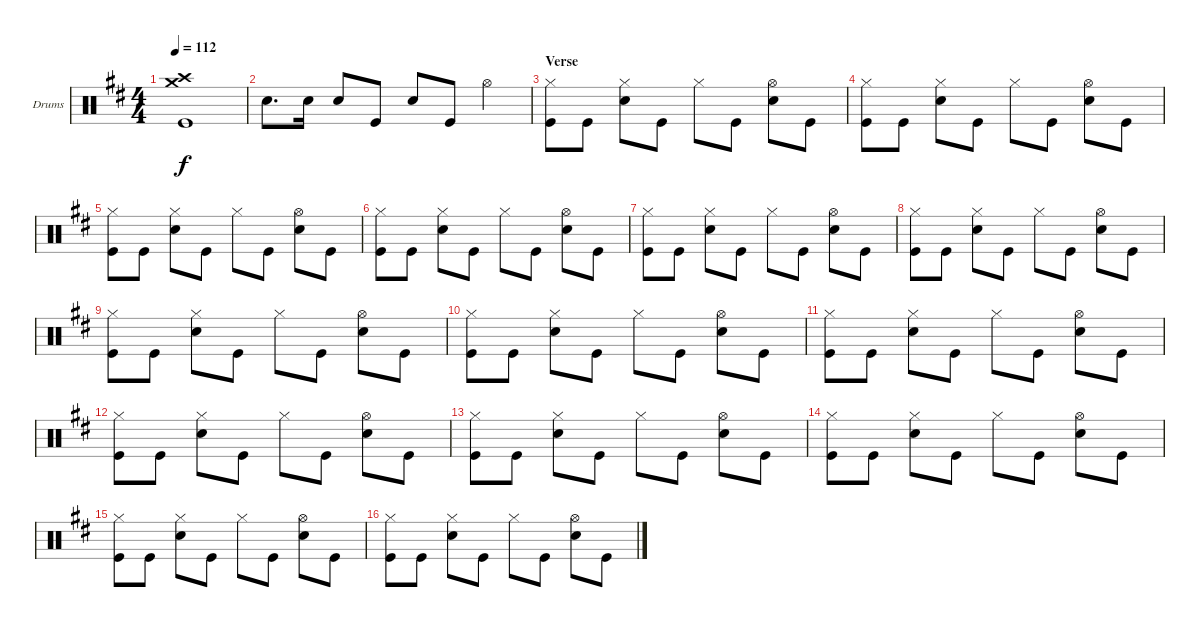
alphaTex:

\defaultSystemsLayout 4
\bracketExtendMode groupsimilarinstruments
\firstSystemTrackNameOrientation horizontal
\otherSystemsTrackNameOrientation horizontal
\track ("Drumkit" "Drums") {instrument percussion}
\staff {score}
\articulation defaults
\ts (4 4)
\tempo 112
\clef neutral
\scale
1.05044
\ks d
("Crash medium (hit)" "Crash high (hit)" "Kick (hit)").1{dy f} |
\scale
0.949559 "Snare (hit) 2".8{d} "Snare (hit) 2".16 "Snare (hit) 2".8 "Kick (hit)".8 "Snare (hit) 2".8 "Kick (hit)".8 "Hi-Hat (open)".4 |
\section ("" "Verse")
\scale
1.05044 ("Hi-Hat (closed)" "Kick (hit)").8 "Kick (hit)".8 ("Hi-Hat (closed)" "Snare (hit) 2").8 "Kick (hit)".8 "Hi-Hat (closed)".8 "Kick (hit)".8 ("Hi-Hat (open)" "Snare (hit) 2").8 "Kick (hit)".8 |
\scale
0.949559 ("Hi-Hat (closed)" "Kick (hit)").8 "Kick (hit)".8 ("Hi-Hat (closed)" "Snare (hit) 2").8 "Kick (hit)".8 "Hi-Hat (closed)".8 "Kick (hit)".8 ("Hi-Hat (open)" "Snare (hit) 2").8 "Kick (hit)".8 |
\scale
1.05044 ("Hi-Hat (closed)" "Kick (hit)").8 "Kick (hit)".8 ("Hi-Hat (closed)" "Snare (hit) 2").8 "Kick (hit)".8 "Hi-Hat (closed)".8 "Kick (hit)".8 ("Hi-Hat (open)" "Snare (hit) 2").8 "Kick (hit)".8 |
\scale
0.949559 ("Hi-Hat (closed)" "Kick (hit)").8 "Kick (hit)".8 ("Hi-Hat (closed)" "Snare (hit) 2").8 "Kick (hit)".8 "Hi-Hat (closed)".8 "Kick (hit)".8 ("Hi-Hat (open)" "Snare (hit) 2").8 "Kick (hit)".8 |
\scale
1.05044 ("Hi-Hat (closed)" "Kick (hit)").8 "Kick (hit)".8 ("Hi-Hat (closed)" "Snare (hit) 2").8 "Kick (hit)".8 "Hi-Hat (closed)".8 "Kick (hit)".8 ("Hi-Hat (open)" "Snare (hit) 2").8 "Kick (hit)".8 |
\scale
0.949559 ("Hi-Hat (closed)" "Kick (hit)").8 "Kick (hit)".8 ("Hi-Hat (closed)" "Snare (hit) 2").8 "Kick (hit)".8 "Hi-Hat (closed)".8 "Kick (hit)".8 ("Hi-Hat (open)" "Snare (hit) 2").8 "Kick (hit)".8 |
\scale
1.05044 ("Hi-Hat (closed)" "Kick (hit)").8 "Kick (hit)".8 ("Hi-Hat (closed)" "Snare (hit) 2").8 "Kick (hit)".8 "Hi-Hat (closed)".8 "Kick (hit)".8 ("Hi-Hat (open)" "Snare (hit) 2").8 "Kick (hit)".8 |
\scale
0.949559 ("Hi-Hat (closed)" "Kick (hit)").8 "Kick (hit)".8 ("Hi-Hat (closed)" "Snare (hit) 2").8 "Kick (hit)".8 "Hi-Hat (closed)".8 "Kick (hit)".8 ("Hi-Hat (open)" "Snare (hit) 2").8 "Kick (hit)".8 |
\scale
1.05044 ("Hi-Hat (closed)" "Kick (hit)").8 "Kick (hit)".8 ("Hi-Hat (closed)" "Snare (hit) 2").8 "Kick (hit)".8 "Hi-Hat (closed)".8 "Kick (hit)".8 ("Hi-Hat (open)" "Snare (hit) 2").8 "Kick (hit)".8 |
\scale
0.949559 ("Hi-Hat (closed)" "Kick (hit)").8 "Kick (hit)".8 ("Hi-Hat (closed)" "Snare (hit) 2").8 "Kick (hit)".8 "Hi-Hat (closed)".8 "Kick (hit)".8 ("Hi-Hat (open)" "Snare (hit) 2").8 "Kick (hit)".8 |
\scale
1.05044 ("Hi-Hat (closed)" "Kick (hit)").8 "Kick (hit)".8 ("Hi-Hat (closed)" "Snare (hit) 2").8 "Kick (hit)".8 "Hi-Hat (closed)".8 "Kick (hit)".8 ("Hi-Hat (open)" "Snare (hit) 2").8 "Kick (hit)".8 |
\scale
0.949559 ("Hi-Hat (closed)" "Kick (hit)").8 "Kick (hit)".8 ("Hi-Hat (closed)" "Snare (hit) 2").8 "Kick (hit)".8 "Hi-Hat (closed)".8 "Kick (hit)".8 ("Hi-Hat (open)" "Snare (hit) 2").8 "Kick (hit)".8 |
\scale
1.05044 ("Hi-Hat (closed)" "Kick (hit)").8 "Kick (hit)".8 ("Hi-Hat (closed)" "Snare (hit) 2").8 "Kick (hit)".8 "Hi-Hat (closed)".8 "Kick (hit)".8 ("Hi-Hat (open)" "Snare (hit) 2").8 "Kick (hit)".8 |
\scale
0.949559 ("Hi-Hat (closed)" "Kick (hit)").8 "Kick (hit)".8 ("Hi-Hat (closed)" "Snare (hit) 2").8 "Kick (hit)".8 "Hi-Hat (closed)".8 "Kick (hit)".8 ("Hi-Hat (open)" "Snare (hit) 2").8 "Kick (hit)".8
